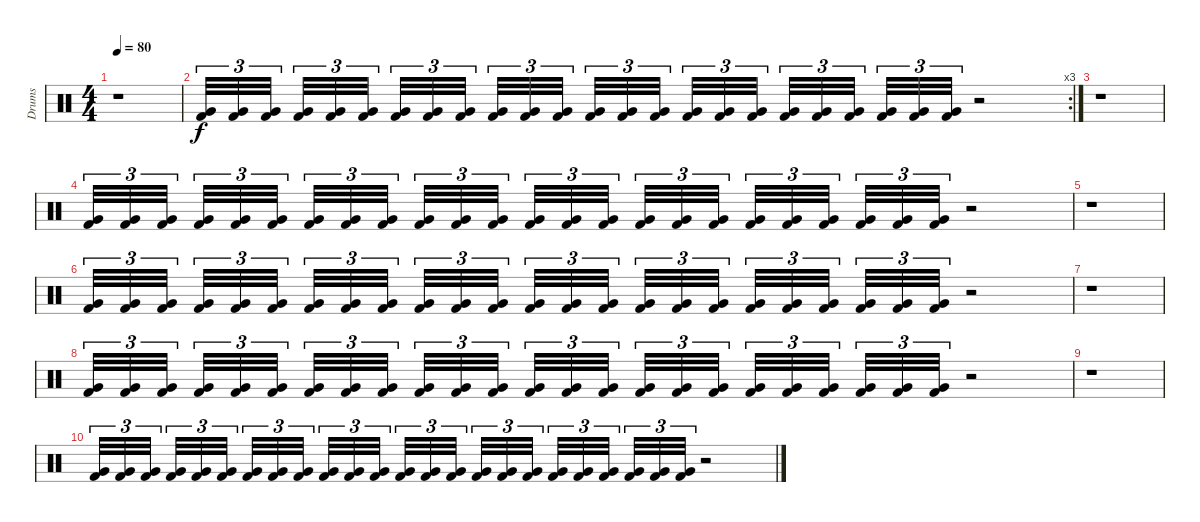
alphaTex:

\track ("Drums" "Drums") {instrument percussion}
\staff {score}
\articulation defaults
\ts (4 4)
\tempo 80
\clef neutral
\ks c
r.1{dy f} |
\rc 3
("Very Low Tom (hit)" "Kick (hit) 2").32{tu (3 2)} ("Very Low Tom (hit)" "Kick (hit) 2").32{tu (3 2)} ("Very Low Tom (hit)" "Kick (hit) 2").32{tu (3 2)} ("Very Low Tom (hit)" "Kick (hit) 2").32{tu (3 2)} ("Very Low Tom (hit)" "Kick (hit) 2").32{tu (3 2)} ("Very Low Tom (hit)" "Kick (hit) 2").32{tu (3 2)} ("Very Low Tom (hit)" "Kick (hit) 2").32{tu (3 2)} ("Very Low Tom (hit)" "Kick (hit) 2").32{tu (3 2)} ("Very Low Tom (hit)" "Kick (hit) 2").32{tu (3 2)} ("Very Low Tom (hit)" "Kick (hit) 2").32{tu (3 2)} ("Very Low Tom (hit)" "Kick (hit) 2").32{tu (3 2)} ("Very Low Tom (hit)" "Kick (hit) 2").32{tu (3 2)} ("Very Low Tom (hit)" "Kick (hit) 2").32{tu (3 2)} ("Very Low Tom (hit)" "Kick (hit) 2").32{tu (3 2)} ("Very Low Tom (hit)" "Kick (hit) 2").32{tu (3 2)} ("Very Low Tom (hit)" "Kick (hit) 2").32{tu (3 2)} ("Very Low Tom (hit)" "Kick (hit) 2").32{tu (3 2)} ("Very Low Tom (hit)" "Kick (hit) 2").32{tu (3 2)} ("Very Low Tom (hit)" "Kick (hit) 2").32{tu (3 2)} ("Very Low Tom (hit)" "Kick (hit) 2").32{tu (3 2)} ("Very Low Tom (hit)" "Kick (hit) 2").32{tu (3 2)} ("Very Low Tom (hit)" "Kick (hit) 2").32{tu (3 2)} ("Very Low Tom (hit)" "Kick (hit) 2").32{tu (3 2)} ("Very Low Tom (hit)" "Kick (hit) 2").32{tu (3 2)} r.2 |
r.1 |
("Very Low Tom (hit)" "Kick (hit) 2").32{tu (3 2) volume 4} ("Very Low Tom (hit)" "Kick (hit) 2").32{tu (3 2)} ("Very Low Tom (hit)" "Kick (hit) 2").32{tu (3 2)} ("Very Low Tom (hit)" "Kick (hit) 2").32{tu (3 2)} ("Very Low Tom (hit)" "Kick (hit) 2").32{tu (3 2)} ("Very Low Tom (hit)" "Kick (hit) 2").32{tu (3 2)} ("Very Low Tom (hit)" "Kick (hit) 2").32{tu (3 2)} ("Very Low Tom (hit)" "Kick (hit) 2").32{tu (3 2)} ("Very Low Tom (hit)" "Kick (hit) 2").32{tu (3 2)} ("Very Low Tom (hit)" "Kick (hit) 2").32{tu (3 2)} ("Very Low Tom (hit)" "Kick (hit) 2").32{tu (3 2)} ("Very Low Tom (hit)" "Kick (hit) 2").32{tu (3 2)} ("Very Low Tom (hit)" "Kick (hit) 2").32{tu (3 2)} ("Very Low Tom (hit)" "Kick (hit) 2").32{tu (3 2)} ("Very Low Tom (hit)" "Kick (hit) 2").32{tu (3 2)} ("Very Low Tom (hit)" "Kick (hit) 2").32{tu (3 2)} ("Very Low Tom (hit)" "Kick (hit) 2").32{tu (3 2)} ("Very Low Tom (hit)" "Kick (hit) 2").32{tu (3 2)} ("Very Low Tom (hit)" "Kick (hit) 2").32{tu (3 2)} ("Very Low Tom (hit)" "Kick (hit) 2").32{tu (3 2)} ("Very Low Tom (hit)" "Kick (hit) 2").32{tu (3 2)} ("Very Low Tom (hit)" "Kick (hit) 2").32{tu (3 2)} ("Very Low Tom (hit)" "Kick (hit) 2").32{tu (3 2)} ("Very Low Tom (hit)" "Kick (hit) 2").32{tu (3 2)} r.2 |
r.1 |
("Very Low Tom (hit)" "Kick (hit) 2").32{tu (3 2) volume 0} ("Very Low Tom (hit)" "Kick (hit) 2").32{tu (3 2)} ("Very Low Tom (hit)" "Kick (hit) 2").32{tu (3 2)} ("Very Low Tom (hit)" "Kick (hit) 2").32{tu (3 2)} ("Very Low Tom (hit)" "Kick (hit) 2").32{tu (3 2)} ("Very Low Tom (hit)" "Kick (hit) 2").32{tu (3 2)} ("Very Low Tom (hit)" "Kick (hit) 2").32{tu (3 2)} ("Very Low Tom (hit)" "Kick (hit) 2").32{tu (3 2)} ("Very Low Tom (hit)" "Kick (hit) 2").32{tu (3 2)} ("Very Low Tom (hit)" "Kick (hit) 2").32{tu (3 2)} ("Very Low Tom (hit)" "Kick (hit) 2").32{tu (3 2)} ("Very Low Tom (hit)" "Kick (hit) 2").32{tu (3 2)} ("Very Low Tom (hit)" "Kick (hit) 2").32{tu (3 2)} ("Very Low Tom (hit)" "Kick (hit) 2").32{tu (3 2)} ("Very Low Tom (hit)" "Kick (hit) 2").32{tu (3 2)} ("Very Low Tom (hit)" "Kick (hit) 2").32{tu (3 2)} ("Very Low Tom (hit)" "Kick (hit) 2").32{tu (3 2)} ("Very Low Tom (hit)" "Kick (hit) 2").32{tu (3 2)} ("Very Low Tom (hit)" "Kick (hit) 2").32{tu (3 2)} ("Very Low Tom (hit)" "Kick (hit) 2").32{tu (3 2)} ("Very Low Tom (hit)" "Kick (hit) 2").32{tu (3 2)} ("Very Low Tom (hit)" "Kick (hit) 2").32{tu (3 2)} ("Very Low Tom (hit)" "Kick (hit) 2").32{tu (3 2)} ("Very Low Tom (hit)" "Kick (hit) 2").32{tu (3 2)} r.2 |
r.1 |
("Very Low Tom (hit)" "Kick (hit) 2").32{tu (3 2)} ("Very Low Tom (hit)" "Kick (hit) 2").32{tu (3 2)} ("Very Low Tom (hit)" "Kick (hit) 2").32{tu (3 2)} ("Very Low Tom (hit)" "Kick (hit) 2").32{tu (3 2)} ("Very Low Tom (hit)" "Kick (hit) 2").32{tu (3 2)} ("Very Low Tom (hit)" "Kick (hit) 2").32{tu (3 2)} ("Very Low Tom (hit)" "Kick (hit) 2").32{tu (3 2)} ("Very Low Tom (hit)" "Kick (hit) 2").32{tu (3 2)} ("Very Low Tom (hit)" "Kick (hit) 2").32{tu (3 2)} ("Very Low Tom (hit)" "Kick (hit) 2").32{tu (3 2)} ("Very Low Tom (hit)" "Kick (hit) 2").32{tu (3 2)} ("Very Low Tom (hit)" "Kick (hit) 2").32{tu (3 2)} ("Very Low Tom (hit)" "Kick (hit) 2").32{tu (3 2)} ("Very Low Tom (hit)" "Kick (hit) 2").32{tu (3 2)} ("Very Low Tom (hit)" "Kick (hit) 2").32{tu (3 2)} ("Very Low Tom (hit)" "Kick (hit) 2").32{tu (3 2)} ("Very Low Tom (hit)" "Kick (hit) 2").32{tu (3 2)} ("Very Low Tom (hit)" "Kick (hit) 2").32{tu (3 2)} ("Very Low Tom (hit)" "Kick (hit) 2").32{tu (3 2)} ("Very Low Tom (hit)" "Kick (hit) 2").32{tu (3 2)} ("Very Low Tom (hit)" "Kick (hit) 2").32{tu (3 2)} ("Very Low Tom (hit)" "Kick (hit) 2").32{tu (3 2)} ("Very Low Tom (hit)" "Kick (hit) 2").32{tu (3 2)} ("Very Low Tom (hit)" "Kick (hit) 2").32{tu (3 2)} r.2 |
r.1 |
("Very Low Tom (hit)" "Kick (hit) 2").32{tu (3 2)} ("Very Low Tom (hit)" "Kick (hit) 2").32{tu (3 2)} ("Very Low Tom (hit)" "Kick (hit) 2").32{tu (3 2)} ("Very Low Tom (hit)" "Kick (hit) 2").32{tu (3 2)} ("Very Low Tom (hit)" "Kick (hit) 2").32{tu (3 2)} ("Very Low Tom (hit)" "Kick (hit) 2").32{tu (3 2)} ("Very Low Tom (hit)" "Kick (hit) 2").32{tu (3 2)} ("Very Low Tom (hit)" "Kick (hit) 2").32{tu (3 2)} ("Very Low Tom (hit)" "Kick (hit) 2").32{tu (3 2)} ("Very Low Tom (hit)" "Kick (hit) 2").32{tu (3 2)} ("Very Low Tom (hit)" "Kick (hit) 2").32{tu (3 2)} ("Very Low Tom (hit)" "Kick (hit) 2").32{tu (3 2)} ("Very Low Tom (hit)" "Kick (hit) 2").32{tu (3 2)} ("Very Low Tom (hit)" "Kick (hit) 2").32{tu (3 2)} ("Very Low Tom (hit)" "Kick (hit) 2").32{tu (3 2)} ("Very Low Tom (hit)" "Kick (hit) 2").32{tu (3 2)} ("Very Low Tom (hit)" "Kick (hit) 2").32{tu (3 2)} ("Very Low Tom (hit)" "Kick (hit) 2").32{tu (3 2)} ("Very Low Tom (hit)" "Kick (hit) 2").32{tu (3 2)} ("Very Low Tom (hit)" "Kick (hit) 2").32{tu (3 2)} ("Very Low Tom (hit)" "Kick (hit) 2").32{tu (3 2)} ("Very Low Tom (hit)" "Kick (hit) 2").32{tu (3 2)} ("Very Low Tom (hit)" "Kick (hit) 2").32{tu (3 2)} ("Very Low Tom (hit)" "Kick (hit) 2").32{tu (3 2)} r.2
